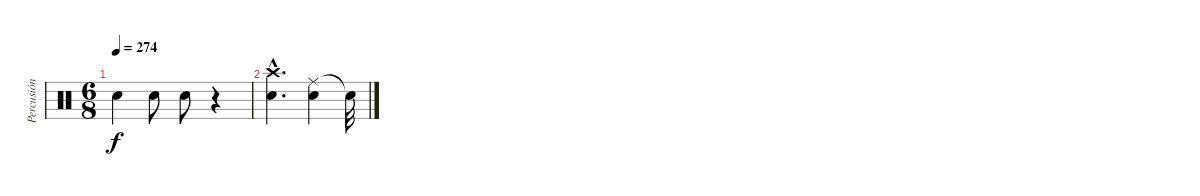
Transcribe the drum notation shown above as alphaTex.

\track ("Percusión Bastarda" "Percusión ") {instrument percussion}
\staff {score}
\articulation defaults
\ts (6 8)
\tempo 274
\clef neutral
\ks c "Snare (hit)"{t}.4{dy f} "Snare (hit) 2".8 "Snare (hit) 2".8
r.4 |
("Crash high (hit)"{hac} "Snare (hit) 2"{hac}).4{d} ("Ride (middle)" "Snare (hit) 2").4 "Snare (hit)"{t}.32
